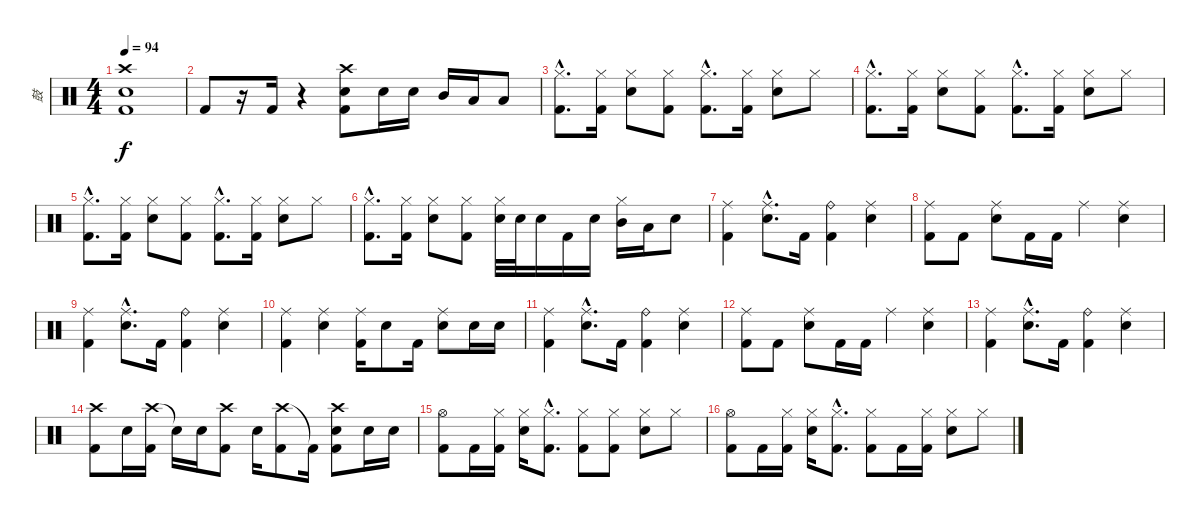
\track ("鼓" "鼓") {instrument percussion}
\staff {score}
\articulation defaults
\ts (4 4)
\tempo 94
\clef neutral
\ks c
("Crash high (hit)" "Snare (hit) 2" "Kick (hit) 2").1{dy f} |
"Kick (hit) 2".8 r.16 "Kick (hit) 2".16 r.4 ("Crash high (hit)" "Snare (hit) 2" "Kick (hit) 2").8 "Snare (hit) 2".16 "Snare (hit) 2".16 "Mid Tom (hit)".16 "Low Tom (hit)".16 "Low Floor Tom (hit)".8 |
("Hi-Hat (closed)"{hac} "Kick (hit) 2"{hac}).8{d} ("Hi-Hat (closed)" "Kick (hit) 2").16 ("Hi-Hat (closed)" "Snare (hit) 2").8 ("Hi-Hat (closed)" "Kick (hit) 2").8 ("Hi-Hat (closed)"{hac} "Kick (hit) 2"{hac}).8{d} ("Hi-Hat (closed)" "Kick (hit) 2").16 ("Hi-Hat (closed)" "Snare (hit) 2").8 "Hi-Hat (closed)".8 |
("Hi-Hat (closed)"{hac} "Kick (hit) 2"{hac}).8{d} ("Hi-Hat (closed)" "Kick (hit) 2").16 ("Hi-Hat (closed)" "Snare (hit) 2").8 ("Hi-Hat (closed)" "Kick (hit) 2").8 ("Hi-Hat (closed)"{hac} "Kick (hit) 2"{hac}).8{d} ("Hi-Hat (closed)" "Kick (hit) 2").16 ("Hi-Hat (closed)" "Snare (hit) 2").8 "Hi-Hat (closed)".8 |
("Hi-Hat (closed)"{hac} "Kick (hit) 2"{hac}).8{d} ("Hi-Hat (closed)" "Kick (hit) 2").16 ("Hi-Hat (closed)" "Snare (hit) 2").8 ("Hi-Hat (closed)" "Kick (hit) 2").8 ("Hi-Hat (closed)"{hac} "Kick (hit) 2"{hac}).8{d} ("Hi-Hat (closed)" "Kick (hit) 2").16 ("Hi-Hat (closed)" "Snare (hit) 2").8 "Hi-Hat (closed)".8 |
("Hi-Hat (closed)"{hac} "Kick (hit) 2"{hac}).8{d} ("Hi-Hat (closed)" "Kick (hit) 2").16 ("Hi-Hat (closed)" "Snare (hit) 2").8 ("Hi-Hat (closed)" "Kick (hit) 2").8 ("Hi-Hat (closed)" "Snare (hit) 2").32 "Snare (hit) 2".32 "Snare (hit) 2".16 "Kick (hit) 2".16 "Snare (hit) 2".16 ("Hi-Hat (closed)" "Mid Tom (hit)").16 "Low Tom (hit)".16 "Snare (hit) 2".8 |
("Ride (middle)" "Kick (hit) 2").4 ("Ride (middle)"{hac} "Snare (hit) 2"{hac}).8{d} "Kick (hit) 2".16 ("Ride (bell)" "Kick (hit) 2").4 ("Ride (middle)" "Snare (hit) 2").4 |
("Ride (middle)" "Kick (hit) 2").8 "Kick (hit) 2".8 ("Ride (middle)" "Snare (hit) 2").8 "Kick (hit) 2".16 "Kick (hit) 2".16 "Ride (middle)".4 ("Ride (middle)" "Snare (hit) 2").4 |
("Ride (middle)" "Kick (hit) 2").4 ("Ride (middle)"{hac} "Snare (hit) 2"{hac}).8{d} "Kick (hit) 2".16 ("Ride (bell)" "Kick (hit) 2").4 ("Ride (middle)" "Snare (hit) 2").4 |
("Ride (middle)" "Kick (hit) 2").4 ("Ride (middle)" "Snare (hit) 2").4 ("Ride (middle)" "Kick (hit) 2").16 "Snare (hit) 2".8 "Kick (hit) 2".16 ("Ride (middle)" "Snare (hit) 2").8 "Snare (hit) 2".16 "Snare (hit) 2".16 |
("Ride (middle)" "Kick (hit) 2").4 ("Ride (middle)"{hac} "Snare (hit) 2"{hac}).8{d} "Kick (hit) 2".16 ("Ride (bell)" "Kick (hit) 2").4 ("Ride (middle)" "Snare (hit) 2").4 |
("Ride (middle)" "Kick (hit) 2").8 "Kick (hit) 2".8 ("Ride (middle)" "Snare (hit) 2").8 "Kick (hit) 2".16 "Kick (hit) 2".16 "Ride (middle)".4 ("Ride (middle)" "Snare (hit) 2").4 |
("Ride (middle)" "Kick (hit) 2").4 ("Ride (middle)"{hac} "Snare (hit) 2"{hac}).8{d} "Kick (hit) 2".16 ("Ride (bell)" "Kick (hit) 2").4 ("Ride (middle)" "Snare (hit) 2").4 |
("Crash high (hit)" "Kick (hit) 2").8 "Snare (hit) 2".16 ("Crash high (hit)" "Kick (hit) 2").16 "Snare (hit)"{t}.16 "Snare (hit) 2".16 ("Crash high (hit)" "Kick (hit) 2").8 "Snare (hit) 2".16 ("Crash high (hit)" "Kick (hit) 2").8 "Kick (hit) 2"{t}.16 ("Crash high (hit)" "Snare (hit) 2" "Kick (hit) 2").8 "Snare (hit) 2".16 "Snare (hit) 2".16 |
("Hi-Hat (open)" "Kick (hit) 2").8 "Kick (hit) 2".16 ("Hi-Hat (closed)" "Kick (hit) 2").16 ("Hi-Hat (closed)" "Snare (hit) 2").16 ("Hi-Hat (closed)"{hac} "Kick (hit) 2"{hac}).8{d} ("Hi-Hat (closed)" "Kick (hit) 2").8 ("Hi-Hat (closed)" "Kick (hit) 2").8 ("Hi-Hat (closed)" "Snare (hit) 2").8 "Hi-Hat (closed)".8 |
("Hi-Hat (open)" "Kick (hit) 2").8 "Kick (hit) 2".16 ("Hi-Hat (closed)" "Kick (hit) 2").16 ("Hi-Hat (closed)" "Snare (hit) 2").16 ("Hi-Hat (closed)"{hac} "Kick (hit) 2"{hac}).8{d} ("Hi-Hat (closed)" "Kick (hit) 2").8 "Kick (hit) 2".16 ("Hi-Hat (closed)" "Kick (hit) 2").16 ("Hi-Hat (closed)" "Snare (hit) 2").8 "Hi-Hat (closed)".8
